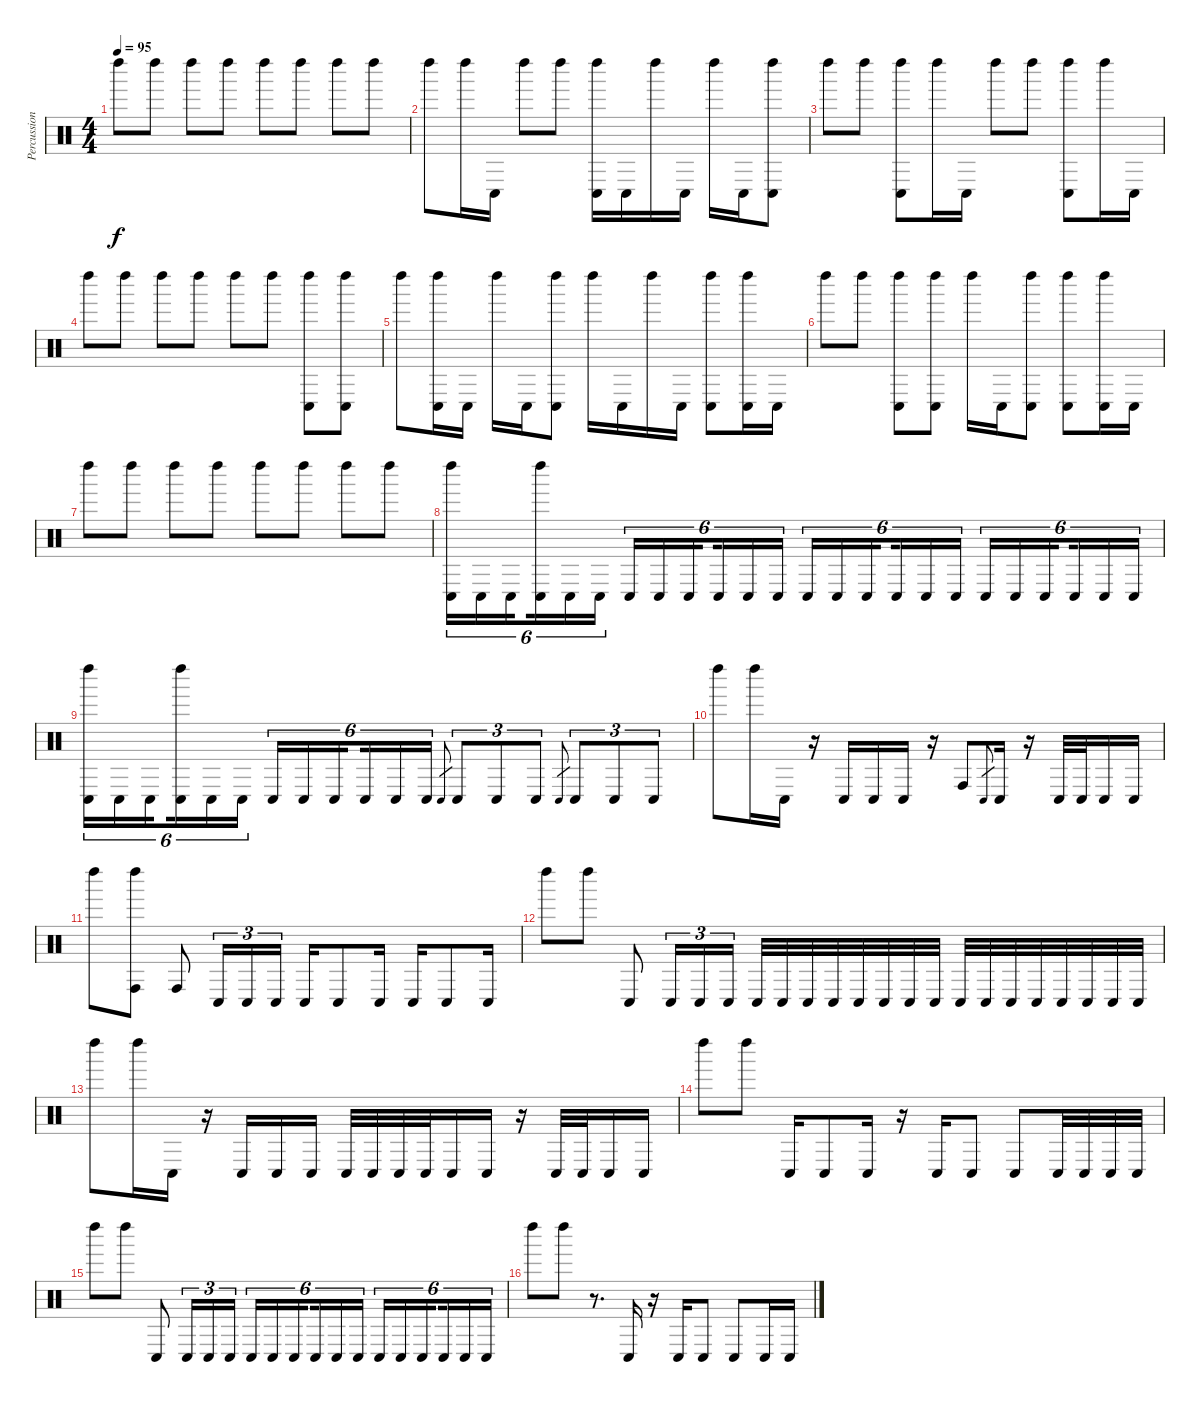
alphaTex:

\track ("Percussion" "Percussion") {instrument percussion}
\staff {score}
\articulation defaults
\ts (4 4)
\tempo 95
\clef neutral
\ks c "Left Maraca (hit)".8{dy f} "Left Maraca (hit)".8 "Left Maraca (hit)".8 "Left Maraca (hit)".8 "Left Maraca (hit)".8 "Left Maraca (hit)".8 "Left Maraca (hit)".8 "Left Maraca (hit)".8
|
"Left Maraca (hit)".8 "Left Maraca (hit)".16 "Conga low (hit)".16 "Left Maraca (hit)".8 "Left Maraca (hit)".8 ("Left Maraca (hit)" "Conga low (hit)").16 "Conga low (hit)".16 "Left Maraca (hit)".16 "Conga low (hit)".16 "Left Maraca (hit)".16 "Conga low (hit)".16 ("Left Maraca (hit)" "Conga low (hit)").8 |
"Left Maraca (hit)".8 "Left Maraca (hit)".8 ("Left Maraca (hit)" "Conga low (hit)").8 "Left Maraca (hit)".16 "Conga low (hit)".16 "Left Maraca (hit)".8 "Left Maraca (hit)".8 ("Left Maraca (hit)" "Conga low (hit)").8 "Left Maraca (hit)".16 "Conga low (hit)".16 |
"Left Maraca (hit)".8 "Left Maraca (hit)".8 "Left Maraca (hit)".8 "Left Maraca (hit)".8 "Left Maraca (hit)".8 "Left Maraca (hit)".8 ("Left Maraca (hit)" "Conga low (hit)").8 ("Left Maraca (hit)" "Conga low (hit)").8 |
"Left Maraca (hit)".8 ("Left Maraca (hit)" "Conga low (hit)").16 "Conga low (hit)".16 "Left Maraca (hit)".16 "Conga low (hit)".16 ("Left Maraca (hit)" "Conga low (hit)").8 "Left Maraca (hit)".16 "Conga low (hit)".16 "Left Maraca (hit)".16 "Conga low (hit)".16 ("Left Maraca (hit)" "Conga low (hit)").8 ("Left Maraca (hit)" "Conga low (hit)").16 "Conga low (hit)".16 |
"Left Maraca (hit)".8 "Left Maraca (hit)".8 ("Left Maraca (hit)" "Conga low (hit)").8 ("Left Maraca (hit)" "Conga low (hit)").8 "Left Maraca (hit)".16 "Conga low (hit)".16 ("Left Maraca (hit)" "Conga low (hit)").8 ("Left Maraca (hit)" "Conga low (hit)").8 ("Left Maraca (hit)" "Conga low (hit)").16 "Conga low (hit)".16 |
"Left Maraca (hit)".8 "Left Maraca (hit)".8 "Left Maraca (hit)".8 "Left Maraca (hit)".8 "Left Maraca (hit)".8 "Left Maraca (hit)".8 "Left Maraca (hit)".8 "Left Maraca (hit)".8 |
("Left Maraca (hit)" "Conga low (hit)").16{tu (6 4)} "Conga low (hit)".16{tu (6 4)} "Conga low (hit)".16{tu (6 4) beam splitsecondary} ("Left Maraca (hit)" "Conga low (hit)").16{tu (6 4)} "Conga low (hit)".16{tu (6 4)} "Conga low (hit)".16{tu (6 4)} "Conga low (hit)".16{tu (6 4)} "Conga low (hit)".16{tu (6 4)} "Conga low (hit)".16{tu (6 4) beam splitsecondary} "Conga low (hit)".16{tu (6 4)} "Conga low (hit)".16{tu (6 4)} "Conga low (hit)".16{tu (6 4)} "Conga low (hit)".16{tu (6 4)} "Conga low (hit)".16{tu (6 4)} "Conga low (hit)".16{tu (6 4) beam splitsecondary} "Conga low (hit)".16{tu (6 4)} "Conga low (hit)".16{tu (6 4)} "Conga low (hit)".16{tu (6 4)} "Conga low (hit)".16{tu (6 4)} "Conga low (hit)".16{tu (6 4)} "Conga low (hit)".16{tu (6 4) beam splitsecondary} "Conga low (hit)".16{tu (6 4)} "Conga low (hit)".16{tu (6 4)} "Conga low (hit)".16{tu (6 4)} |
("Left Maraca (hit)" "Conga low (hit)").16{tu (6 4)} "Conga low (hit)".16{tu (6 4)} "Conga low (hit)".16{tu (6 4) beam splitsecondary} ("Left Maraca (hit)" "Conga low (hit)").16{tu (6 4)} "Conga low (hit)".16{tu (6 4)} "Conga low (hit)".16{tu (6 4)} "Conga low (hit)".16{tu (6 4)} "Conga low (hit)".16{tu (6 4)} "Conga low (hit)".16{tu (6 4) beam splitsecondary} "Conga low (hit)".16{tu (6 4)} "Conga low (hit)".16{tu (6 4)} "Conga low (hit)".16{tu (6 4)} "Conga low (hit)".8{gr} "Conga low (hit)".8{tu (3 2)} "Conga low (hit)".8{tu (3 2)} "Conga low (hit)".8{tu (3 2)} "Conga low (hit)".8{gr} "Conga low (hit)".8{tu (3 2)} "Conga low (hit)".8{tu (3 2)} "Conga low (hit)".8{tu (3 2)} |
"Left Maraca (hit)".8 "Left Maraca (hit)".16 "Conga low (hit)".16 r.16 "Conga low (hit)".16 "Conga low (hit)".16 "Conga low (hit)".16 r.16 "Conga high (hit)".8 "Conga low (hit)".8{gr} "Conga low (hit)".16 r.16 "Conga low (hit)".32 "Conga low (hit)".32 "Conga low (hit)".16 "Conga low (hit)".16 |
"Left Maraca (hit)".8 ("Left Maraca (hit)" "Conga high (hit)").8 "Conga high (hit)".8 "Conga low (hit)".16{tu (3 2)} "Conga low (hit)".16{tu (3 2)} "Conga low (hit)".16{tu (3 2)} "Conga low (hit)".16 "Conga low (hit)".8 "Conga low (hit)".16 "Conga low (hit)".16 "Conga low (hit)".8 "Conga low (hit)".16 |
"Left Maraca (hit)".8 "Left Maraca (hit)".8 "Conga low (hit)".8 "Conga low (hit)".16{tu (3 2)} "Conga low (hit)".16{tu (3 2)} "Conga low (hit)".16{tu (3 2)} "Conga low (hit)".32 "Conga low (hit)".32 "Conga low (hit)".32 "Conga low (hit)".32 "Conga low (hit)".32 "Conga low (hit)".32 "Conga low (hit)".32 "Conga low (hit)".32 "Conga low (hit)".32 "Conga low (hit)".32 "Conga low (hit)".32 "Conga low (hit)".32 "Conga low (hit)".32 "Conga low (hit)".32 "Conga low (hit)".32 "Conga low (hit)".32 |
"Left Maraca (hit)".8 "Left Maraca (hit)".16 "Conga low (hit)".16 r.16 "Conga low (hit)".16 "Conga low (hit)".16 "Conga low (hit)".16 "Conga low (hit)".32 "Conga low (hit)".32 "Conga low (hit)".32 "Conga low (hit)".32 "Conga low (hit)".16 "Conga low (hit)".16 r.16 "Conga low (hit)".32 "Conga low (hit)".32 "Conga low (hit)".16 "Conga low (hit)".16 |
"Left Maraca (hit)".8 "Left Maraca (hit)".8 "Conga low (hit)".16 "Conga low (hit)".8 "Conga low (hit)".16 r.16 "Conga low (hit)".16 "Conga low (hit)".8 "Conga low (hit)".8 "Conga low (hit)".32 "Conga low (hit)".32 "Conga low (hit)".32 "Conga low (hit)".32 |
"Left Maraca (hit)".8 "Left Maraca (hit)".8 "Conga low (hit)".8 "Conga low (hit)".16{tu (3 2)} "Conga low (hit)".16{tu (3 2)} "Conga low (hit)".16{tu (3 2)} "Conga low (hit)".16{tu (6 4)} "Conga low (hit)".16{tu (6 4)} "Conga low (hit)".16{tu (6 4) beam splitsecondary} "Conga low (hit)".16{tu (6 4)} "Conga low (hit)".16{tu (6 4)} "Conga low (hit)".16{tu (6 4)} "Conga low (hit)".16{tu (6 4)} "Conga low (hit)".16{tu (6 4)} "Conga low (hit)".16{tu (6 4) beam splitsecondary} "Conga low (hit)".16{tu (6 4)} "Conga low (hit)".16{tu (6 4)} "Conga low (hit)".16{tu (6 4)} |
"Left Maraca (hit)".8 "Left Maraca (hit)".8 r.8{d} "Conga low (hit)".16 r.16 "Conga low (hit)".16 "Conga low (hit)".8 "Conga low (hit)".8 "Conga low (hit)".16 "Conga low (hit)".16
